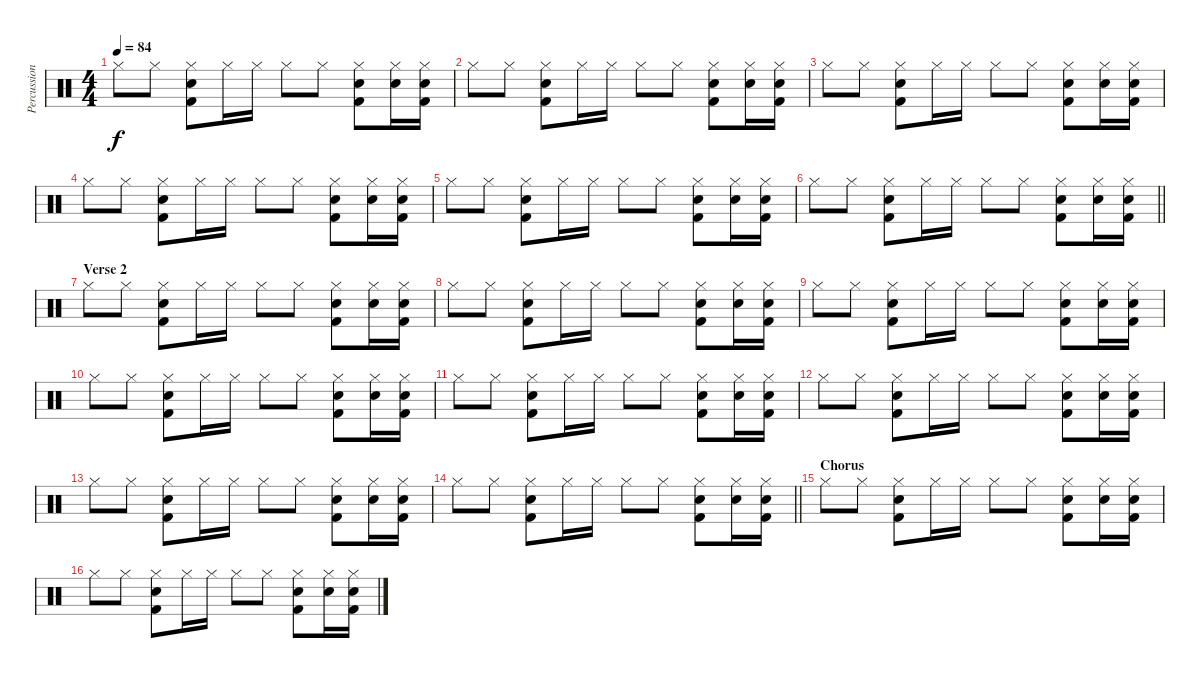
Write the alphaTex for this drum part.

\track ("Percussion" "Percussion") {instrument percussion}
\staff {score}
\articulation defaults
\ts (4 4)
\tempo 84
\clef neutral
\ks c "Hi-Hat (closed)".8{dy f} "Hi-Hat (closed)".8
("Hi-Hat (closed)" "Snare (hit) 2" "Kick (hit) 2").8 "Hi-Hat (closed)".16 "Hi-Hat (closed)".16 "Hi-Hat (closed)".8 "Hi-Hat (closed)".8 ("Hi-Hat (closed)" "Snare (hit) 2" "Kick (hit) 2").8 ("Hi-Hat (closed)" "Snare (hit) 2").16 ("Hi-Hat (closed)" "Snare (hit) 2" "Kick (hit) 2").16 |
"Hi-Hat (closed)".8 "Hi-Hat (closed)".8 ("Hi-Hat (closed)" "Snare (hit) 2" "Kick (hit) 2").8 "Hi-Hat (closed)".16 "Hi-Hat (closed)".16 "Hi-Hat (closed)".8 "Hi-Hat (closed)".8 ("Hi-Hat (closed)" "Snare (hit) 2" "Kick (hit) 2").8 ("Hi-Hat (closed)" "Snare (hit) 2").16 ("Hi-Hat (closed)" "Snare (hit) 2" "Kick (hit) 2").16 |
"Hi-Hat (closed)".8 "Hi-Hat (closed)".8 ("Hi-Hat (closed)" "Snare (hit) 2" "Kick (hit) 2").8 "Hi-Hat (closed)".16 "Hi-Hat (closed)".16 "Hi-Hat (closed)".8 "Hi-Hat (closed)".8 ("Hi-Hat (closed)" "Snare (hit) 2" "Kick (hit) 2").8 ("Hi-Hat (closed)" "Snare (hit) 2").16 ("Hi-Hat (closed)" "Snare (hit) 2" "Kick (hit) 2").16 |
"Hi-Hat (closed)".8 "Hi-Hat (closed)".8 ("Hi-Hat (closed)" "Snare (hit) 2" "Kick (hit) 2").8 "Hi-Hat (closed)".16 "Hi-Hat (closed)".16 "Hi-Hat (closed)".8 "Hi-Hat (closed)".8 ("Hi-Hat (closed)" "Snare (hit) 2" "Kick (hit) 2").8 ("Hi-Hat (closed)" "Snare (hit) 2").16 ("Hi-Hat (closed)" "Snare (hit) 2" "Kick (hit) 2").16 |
"Hi-Hat (closed)".8 "Hi-Hat (closed)".8 ("Hi-Hat (closed)" "Snare (hit) 2" "Kick (hit) 2").8 "Hi-Hat (closed)".16 "Hi-Hat (closed)".16 "Hi-Hat (closed)".8 "Hi-Hat (closed)".8 ("Hi-Hat (closed)" "Snare (hit) 2" "Kick (hit) 2").8 ("Hi-Hat (closed)" "Snare (hit) 2").16 ("Hi-Hat (closed)" "Snare (hit) 2" "Kick (hit) 2").16 |
\barLineRight lightlight "Hi-Hat (closed)".8 "Hi-Hat (closed)".8
("Hi-Hat (closed)" "Snare (hit) 2" "Kick (hit) 2").8 "Hi-Hat (closed)".16 "Hi-Hat (closed)".16 "Hi-Hat (closed)".8 "Hi-Hat (closed)".8 ("Hi-Hat (closed)" "Snare (hit) 2" "Kick (hit) 2").8 ("Hi-Hat (closed)" "Snare (hit) 2").16 ("Hi-Hat (closed)" "Snare (hit) 2" "Kick (hit) 2").16 |
\section ("" "Verse 2")
"Hi-Hat (closed)".8 "Hi-Hat (closed)".8 ("Hi-Hat (closed)" "Snare (hit) 2" "Kick (hit) 2").8 "Hi-Hat (closed)".16 "Hi-Hat (closed)".16 "Hi-Hat (closed)".8 "Hi-Hat (closed)".8 ("Hi-Hat (closed)" "Snare (hit) 2" "Kick (hit) 2").8 ("Hi-Hat (closed)" "Snare (hit) 2").16 ("Hi-Hat (closed)" "Snare (hit) 2" "Kick (hit) 2").16 |
"Hi-Hat (closed)".8 "Hi-Hat (closed)".8 ("Hi-Hat (closed)" "Snare (hit) 2" "Kick (hit) 2").8 "Hi-Hat (closed)".16 "Hi-Hat (closed)".16 "Hi-Hat (closed)".8 "Hi-Hat (closed)".8 ("Hi-Hat (closed)" "Snare (hit) 2" "Kick (hit) 2").8 ("Hi-Hat (closed)" "Snare (hit) 2").16 ("Hi-Hat (closed)" "Snare (hit) 2" "Kick (hit) 2").16 |
"Hi-Hat (closed)".8 "Hi-Hat (closed)".8 ("Hi-Hat (closed)" "Snare (hit) 2" "Kick (hit) 2").8 "Hi-Hat (closed)".16 "Hi-Hat (closed)".16 "Hi-Hat (closed)".8 "Hi-Hat (closed)".8 ("Hi-Hat (closed)" "Snare (hit) 2" "Kick (hit) 2").8 ("Hi-Hat (closed)" "Snare (hit) 2").16 ("Hi-Hat (closed)" "Snare (hit) 2" "Kick (hit) 2").16 |
"Hi-Hat (closed)".8 "Hi-Hat (closed)".8 ("Hi-Hat (closed)" "Snare (hit) 2" "Kick (hit) 2").8 "Hi-Hat (closed)".16 "Hi-Hat (closed)".16 "Hi-Hat (closed)".8 "Hi-Hat (closed)".8 ("Hi-Hat (closed)" "Snare (hit) 2" "Kick (hit) 2").8 ("Hi-Hat (closed)" "Snare (hit) 2").16 ("Hi-Hat (closed)" "Snare (hit) 2" "Kick (hit) 2").16 |
"Hi-Hat (closed)".8 "Hi-Hat (closed)".8 ("Hi-Hat (closed)" "Snare (hit) 2" "Kick (hit) 2").8 "Hi-Hat (closed)".16 "Hi-Hat (closed)".16 "Hi-Hat (closed)".8 "Hi-Hat (closed)".8 ("Hi-Hat (closed)" "Snare (hit) 2" "Kick (hit) 2").8 ("Hi-Hat (closed)" "Snare (hit) 2").16 ("Hi-Hat (closed)" "Snare (hit) 2" "Kick (hit) 2").16 |
"Hi-Hat (closed)".8 "Hi-Hat (closed)".8 ("Hi-Hat (closed)" "Snare (hit) 2" "Kick (hit) 2").8 "Hi-Hat (closed)".16 "Hi-Hat (closed)".16 "Hi-Hat (closed)".8 "Hi-Hat (closed)".8 ("Hi-Hat (closed)" "Snare (hit) 2" "Kick (hit) 2").8 ("Hi-Hat (closed)" "Snare (hit) 2").16 ("Hi-Hat (closed)" "Snare (hit) 2" "Kick (hit) 2").16 |
"Hi-Hat (closed)".8 "Hi-Hat (closed)".8 ("Hi-Hat (closed)" "Snare (hit) 2" "Kick (hit) 2").8 "Hi-Hat (closed)".16 "Hi-Hat (closed)".16 "Hi-Hat (closed)".8 "Hi-Hat (closed)".8 ("Hi-Hat (closed)" "Snare (hit) 2" "Kick (hit) 2").8 ("Hi-Hat (closed)" "Snare (hit) 2").16 ("Hi-Hat (closed)" "Snare (hit) 2" "Kick (hit) 2").16 |
\barLineRight lightlight "Hi-Hat (closed)".8 "Hi-Hat (closed)".8
("Hi-Hat (closed)" "Snare (hit) 2" "Kick (hit) 2").8 "Hi-Hat (closed)".16 "Hi-Hat (closed)".16 "Hi-Hat (closed)".8 "Hi-Hat (closed)".8 ("Hi-Hat (closed)" "Snare (hit) 2" "Kick (hit) 2").8 ("Hi-Hat (closed)" "Snare (hit) 2").16 ("Hi-Hat (closed)" "Snare (hit) 2" "Kick (hit) 2").16 |
\section ("" "Chorus")
"Hi-Hat (closed)".8 "Hi-Hat (closed)".8 ("Hi-Hat (closed)" "Snare (hit) 2" "Kick (hit) 2").8 "Hi-Hat (closed)".16 "Hi-Hat (closed)".16 "Hi-Hat (closed)".8 "Hi-Hat (closed)".8 ("Hi-Hat (closed)" "Snare (hit) 2" "Kick (hit) 2").8 ("Hi-Hat (closed)" "Snare (hit) 2").16 ("Hi-Hat (closed)" "Snare (hit) 2" "Kick (hit) 2").16 |
"Hi-Hat (closed)".8 "Hi-Hat (closed)".8 ("Hi-Hat (closed)" "Snare (hit) 2" "Kick (hit) 2").8 "Hi-Hat (closed)".16 "Hi-Hat (closed)".16 "Hi-Hat (closed)".8 "Hi-Hat (closed)".8 ("Hi-Hat (closed)" "Snare (hit) 2" "Kick (hit) 2").8 ("Hi-Hat (closed)" "Snare (hit) 2").16 ("Hi-Hat (closed)" "Snare (hit) 2" "Kick (hit) 2").16
